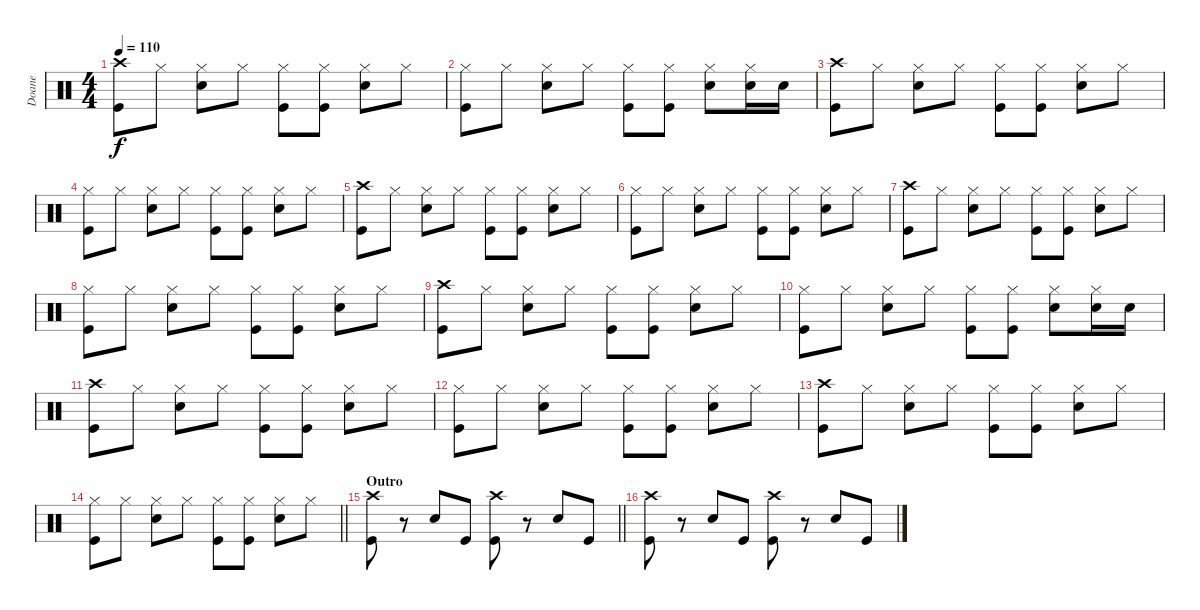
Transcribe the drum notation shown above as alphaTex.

\track ("Doane" "Doane") {instrument percussion}
\staff {score}
\articulation defaults
\ts (4 4)
\tempo 110
\clef neutral
\ks c
("Crash high (hit)" "Kick (hit)").8{dy f} "Hi-Hat (closed)".8 ("Hi-Hat (closed)" "Snare (hit) 2").8 "Hi-Hat (closed)".8 ("Hi-Hat (closed)" "Kick (hit)").8 ("Hi-Hat (closed)" "Kick (hit)").8 ("Hi-Hat (closed)" "Snare (hit) 2").8 "Hi-Hat (closed)".8 |
("Hi-Hat (closed)" "Kick (hit)").8 "Hi-Hat (closed)".8 ("Hi-Hat (closed)" "Snare (hit) 2").8 "Hi-Hat (closed)".8 ("Hi-Hat (closed)" "Kick (hit)").8 ("Hi-Hat (closed)" "Kick (hit)").8 ("Hi-Hat (closed)" "Snare (hit) 2").8 ("Hi-Hat (closed)" "Snare (hit) 2").16 "Snare (hit) 2".16 |
("Crash high (hit)" "Kick (hit)").8 "Hi-Hat (closed)".8 ("Hi-Hat (closed)" "Snare (hit) 2").8 "Hi-Hat (closed)".8 ("Hi-Hat (closed)" "Kick (hit)").8 ("Hi-Hat (closed)" "Kick (hit)").8 ("Hi-Hat (closed)" "Snare (hit) 2").8 "Hi-Hat (closed)".8 |
("Hi-Hat (closed)" "Kick (hit)").8 "Hi-Hat (closed)".8 ("Hi-Hat (closed)" "Snare (hit) 2").8 "Hi-Hat (closed)".8 ("Hi-Hat (closed)" "Kick (hit)").8 ("Hi-Hat (closed)" "Kick (hit)").8 ("Hi-Hat (closed)" "Snare (hit) 2").8 "Hi-Hat (closed)".8 |
("Crash high (hit)" "Kick (hit)").8 "Hi-Hat (closed)".8 ("Hi-Hat (closed)" "Snare (hit) 2").8 "Hi-Hat (closed)".8 ("Hi-Hat (closed)" "Kick (hit)").8 ("Hi-Hat (closed)" "Kick (hit)").8 ("Hi-Hat (closed)" "Snare (hit) 2").8 "Hi-Hat (closed)".8 |
("Hi-Hat (closed)" "Kick (hit)").8 "Hi-Hat (closed)".8 ("Hi-Hat (closed)" "Snare (hit) 2").8 "Hi-Hat (closed)".8 ("Hi-Hat (closed)" "Kick (hit)").8 ("Hi-Hat (closed)" "Kick (hit)").8 ("Hi-Hat (closed)" "Snare (hit) 2").8 "Hi-Hat (closed)".8 |
("Crash high (hit)" "Kick (hit)").8 "Hi-Hat (closed)".8 ("Hi-Hat (closed)" "Snare (hit) 2").8 "Hi-Hat (closed)".8 ("Hi-Hat (closed)" "Kick (hit)").8 ("Hi-Hat (closed)" "Kick (hit)").8 ("Hi-Hat (closed)" "Snare (hit) 2").8 "Hi-Hat (closed)".8 |
("Hi-Hat (closed)" "Kick (hit)").8 "Hi-Hat (closed)".8 ("Hi-Hat (closed)" "Snare (hit) 2").8 "Hi-Hat (closed)".8 ("Hi-Hat (closed)" "Kick (hit)").8 ("Hi-Hat (closed)" "Kick (hit)").8 ("Hi-Hat (closed)" "Snare (hit) 2").8 "Hi-Hat (closed)".8 |
("Crash high (hit)" "Kick (hit)").8 "Hi-Hat (closed)".8 ("Hi-Hat (closed)" "Snare (hit) 2").8 "Hi-Hat (closed)".8 ("Hi-Hat (closed)" "Kick (hit)").8 ("Hi-Hat (closed)" "Kick (hit)").8 ("Hi-Hat (closed)" "Snare (hit) 2").8 "Hi-Hat (closed)".8 |
("Hi-Hat (closed)" "Kick (hit)").8 "Hi-Hat (closed)".8 ("Hi-Hat (closed)" "Snare (hit) 2").8 "Hi-Hat (closed)".8 ("Hi-Hat (closed)" "Kick (hit)").8 ("Hi-Hat (closed)" "Kick (hit)").8 ("Hi-Hat (closed)" "Snare (hit) 2").8 ("Hi-Hat (closed)" "Snare (hit) 2").16 "Snare (hit) 2".16 |
("Crash high (hit)" "Kick (hit)").8 "Hi-Hat (closed)".8 ("Hi-Hat (closed)" "Snare (hit) 2").8 "Hi-Hat (closed)".8 ("Hi-Hat (closed)" "Kick (hit)").8 ("Hi-Hat (closed)" "Kick (hit)").8 ("Hi-Hat (closed)" "Snare (hit) 2").8 "Hi-Hat (closed)".8 |
("Hi-Hat (closed)" "Kick (hit)").8 "Hi-Hat (closed)".8 ("Hi-Hat (closed)" "Snare (hit) 2").8 "Hi-Hat (closed)".8 ("Hi-Hat (closed)" "Kick (hit)").8 ("Hi-Hat (closed)" "Kick (hit)").8 ("Hi-Hat (closed)" "Snare (hit) 2").8 "Hi-Hat (closed)".8 |
("Crash high (hit)" "Kick (hit)").8 "Hi-Hat (closed)".8 ("Hi-Hat (closed)" "Snare (hit) 2").8 "Hi-Hat (closed)".8 ("Hi-Hat (closed)" "Kick (hit)").8 ("Hi-Hat (closed)" "Kick (hit)").8 ("Hi-Hat (closed)" "Snare (hit) 2").8 "Hi-Hat (closed)".8 |
\barLineRight lightlight
("Hi-Hat (closed)" "Kick (hit)").8 "Hi-Hat (closed)".8 ("Hi-Hat (closed)" "Snare (hit) 2").8 "Hi-Hat (closed)".8 ("Hi-Hat (closed)" "Kick (hit)").8 ("Hi-Hat (closed)" "Kick (hit)").8 ("Hi-Hat (closed)" "Snare (hit) 2").8 "Hi-Hat (closed)".8 |
\section ("" "Outro")
\barLineRight lightlight
("Crash high (hit)" "Kick (hit)").8 r.8 "Snare (hit) 2".8 "Kick (hit)".8 ("Crash high (hit)" "Kick (hit)").8 r.8 "Snare (hit) 2".8 "Kick (hit)".8 |
("Crash high (hit)" "Kick (hit)").8 r.8 "Snare (hit) 2".8 "Kick (hit)".8 ("Crash high (hit)" "Kick (hit)").8 r.8 "Snare (hit) 2".8 "Kick (hit)".8
